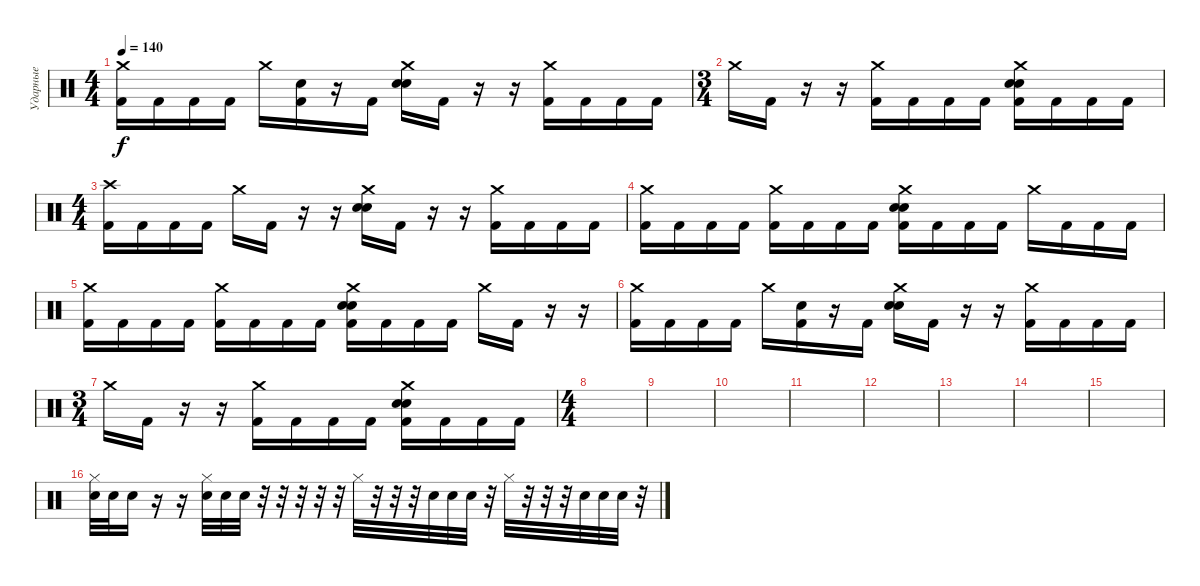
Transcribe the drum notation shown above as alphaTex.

\track ("Ударные" "Ударные") {instrument percussion}
\staff {score}
\articulation defaults
\ts (4 4)
\tempo 140
\clef neutral
\ks c
("Crash medium (hit)" "Kick (hit) 2").16{dy f} "Kick (hit) 2".16 "Kick (hit) 2".16 "Kick (hit) 2".16 "Crash medium (hit)".16 ("Snare (hit)" "Kick (hit) 2").16 r.16 "Kick (hit) 2".16 ("Crash medium (hit)" "Electric Snare (hit)" "Snare (hit) 2").16 "Kick (hit) 2".16 r.16 r.16 ("Crash medium (hit)" "Kick (hit) 2").16 "Kick (hit) 2".16 "Kick (hit) 2".16 "Kick (hit) 2".16 |
\ts (3 4)
"Crash medium (hit)".16 "Kick (hit) 2".16 r.16 r.16 ("Crash medium (hit)" "Kick (hit) 2").16 "Kick (hit) 2".16 "Kick (hit) 2".16 "Kick (hit) 2".16 ("Crash medium (hit)" "Electric Snare (hit)" "Snare (hit) 2" "Kick (hit) 2").16 "Kick (hit) 2".16 "Kick (hit) 2".16 "Kick (hit) 2".16 |
\ts (4 4)
("Crash high (hit)" "Kick (hit) 2").16 "Kick (hit) 2".16 "Kick (hit) 2".16 "Kick (hit) 2".16 "Crash medium (hit)".16 "Kick (hit) 2".16 r.16 r.16 ("Crash medium (hit)" "Electric Snare (hit)" "Snare (hit) 2").16 "Kick (hit) 2".16 r.16 r.16 ("Crash medium (hit)" "Kick (hit) 2").16 "Kick (hit) 2".16 "Kick (hit) 2".16 "Kick (hit) 2".16 |
("Crash medium (hit)" "Kick (hit) 2").16 "Kick (hit) 2".16 "Kick (hit) 2".16 "Kick (hit) 2".16 ("Crash medium (hit)" "Kick (hit) 2").16 "Kick (hit) 2".16 "Kick (hit) 2".16 "Kick (hit) 2".16 ("Crash medium (hit)" "Electric Snare (hit)" "Snare (hit) 2" "Kick (hit) 2").16 "Kick (hit) 2".16 "Kick (hit) 2".16 "Kick (hit) 2".16 "Crash medium (hit)".16 "Kick (hit) 2".16 "Kick (hit) 2".16 "Kick (hit) 2".16 |
("Crash medium (hit)" "Kick (hit) 2").16 "Kick (hit) 2".16 "Kick (hit) 2".16 "Kick (hit) 2".16 ("Crash medium (hit)" "Kick (hit) 2").16 "Kick (hit) 2".16 "Kick (hit) 2".16 "Kick (hit) 2".16 ("Crash medium (hit)" "Electric Snare (hit)" "Snare (hit) 2" "Kick (hit) 2").16 "Kick (hit) 2".16 "Kick (hit) 2".16 "Kick (hit) 2".16 "Crash medium (hit)".16 "Kick (hit) 2".16 r.16 r.16 |
("Crash medium (hit)" "Kick (hit) 2").16 "Kick (hit) 2".16 "Kick (hit) 2".16 "Kick (hit) 2".16 "Crash medium (hit)".16 ("Snare (hit)" "Kick (hit) 2").16 r.16 "Kick (hit) 2".16 ("Crash medium (hit)" "Electric Snare (hit)" "Snare (hit) 2").16 "Kick (hit) 2".16 r.16 r.16 ("Crash medium (hit)" "Kick (hit) 2").16 "Kick (hit) 2".16 "Kick (hit) 2".16 "Kick (hit) 2".16 |
\ts (3 4)
"Crash medium (hit)".16 "Kick (hit) 2".16 r.16 r.16 ("Crash medium (hit)" "Kick (hit) 2").16 "Kick (hit) 2".16 "Kick (hit) 2".16 "Kick (hit) 2".16 ("Crash medium (hit)" "Electric Snare (hit)" "Snare (hit) 2" "Kick (hit) 2").16 "Kick (hit) 2".16 "Kick (hit) 2".16 "Kick (hit) 2".16 |
\ts (4 4)
|
|
|
|
|
|
|
|
("Hi-Hat (closed)" "Electric Snare (hit)").32 "Electric Snare (hit)".32 "Electric Snare (hit)".16 r.16 r.16 ("Hi-Hat (closed)" "Electric Snare (hit)").32 "Electric Snare (hit)".32 "Electric Snare (hit)".32 r.32 r.32 r.32 r.32 r.32 "Hi-Hat (closed)".32 r.32 r.32 r.32 "Electric Snare (hit)".32 "Electric Snare (hit)".32 "Electric Snare (hit)".32 r.32 "Hi-Hat (closed)".32 r.32 r.32 r.32 "Electric Snare (hit)".32 "Electric Snare (hit)".32 "Electric Snare (hit)".32 r.32
